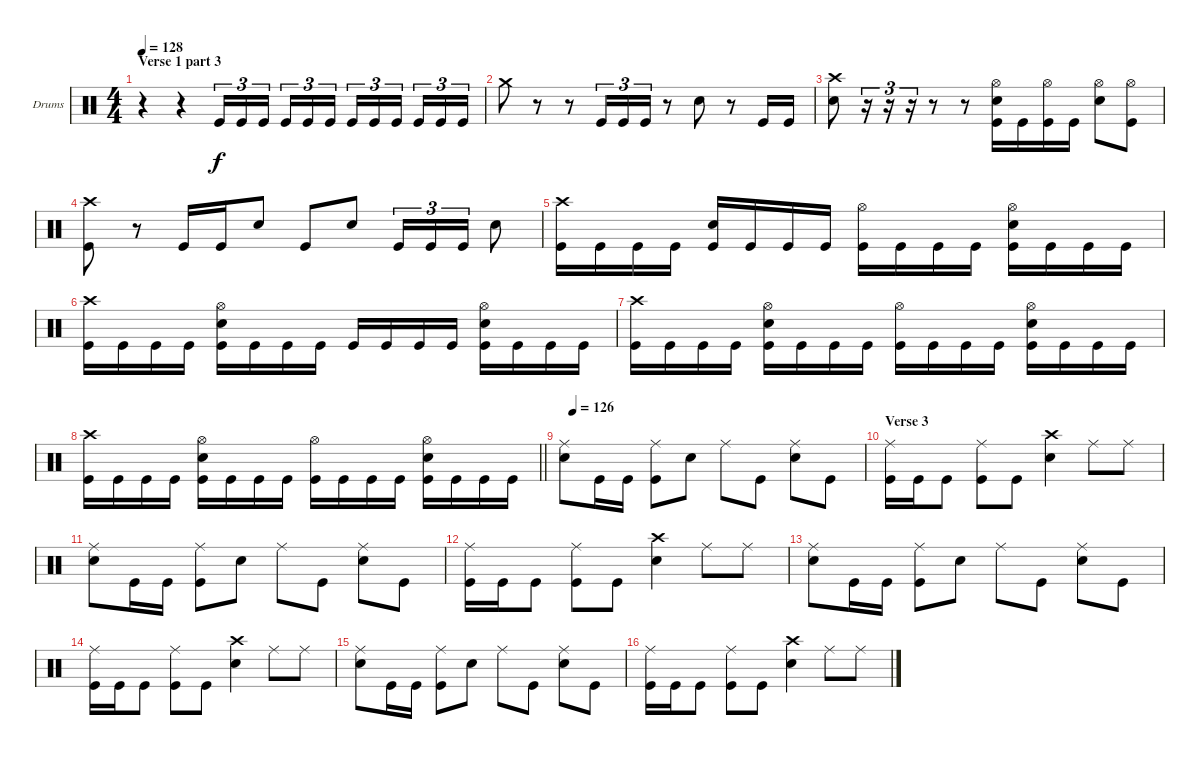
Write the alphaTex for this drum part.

\bracketExtendMode groupsimilarinstruments
\firstSystemTrackNameOrientation horizontal
\otherSystemsTrackNameOrientation horizontal
\track ("Drumkit" "Drums") {instrument percussion}
\staff {score}
\articulation defaults
\ts (4 4)
\section ("" "Verse 1 part 3")
\tempo 128
\clef neutral
\ks c
r.4{dy f} r.4 "Kick (hit)".16{tu (3 2)} "Kick (hit)".16{tu (3 2)} "Kick (hit)".16{tu (3 2)} "Kick (hit)".16{tu (3 2)} "Kick (hit)".16{tu (3 2)} "Kick (hit)".16{tu (3 2)} "Kick (hit)".16{tu (3 2)} "Kick (hit)".16{tu (3 2)} "Kick (hit)".16{tu (3 2)} "Kick (hit)".16{tu (3 2)} "Kick (hit)".16{tu (3 2)} "Kick (hit)".16{tu (3 2)} |
"Crash medium (hit)".8 r.8 r.8 "Kick (hit)".16{tu (3 2)} "Kick (hit)".16{tu (3 2)} "Kick (hit)".16{tu (3 2)} r.8 "Snare (hit) 2".8 r.8 "Kick (hit)".16 "Kick (hit)".16 |
("Crash high (hit)" "Snare (hit) 2").8 r.16{tu (3 2)} r.16{tu (3 2)} r.16{tu (3 2)} r.8 r.8 ("Hi-Hat (open)" "Snare (hit) 2" "Kick (hit)").16 "Kick (hit)".16 ("Hi-Hat (open)" "Kick (hit)").16 "Kick (hit)".16 ("Hi-Hat (open)" "Snare (hit) 2").8 ("Hi-Hat (open)" "Kick (hit)").8 |
("Crash high (hit)" "Kick (hit)").8 r.8 "Kick (hit)".16 "Kick (hit)".16 "Snare (hit) 2".8 "Kick (hit)".8 "Snare (hit) 2".8 "Kick (hit)".16{tu (3 2)} "Kick (hit)".16{tu (3 2)} "Kick (hit)".16{tu (3 2)} "Snare (hit) 2".8 |
("Crash high (hit)" "Kick (hit)").16 "Kick (hit)".16 "Kick (hit)".16 "Kick (hit)".16 ("Snare (hit) 2" "Kick (hit)").16 "Kick (hit)".16 "Kick (hit)".16 "Kick (hit)".16 ("Hi-Hat (open)" "Kick (hit)").16 "Kick (hit)".16 "Kick (hit)".16 "Kick (hit)".16 ("Hi-Hat (open)" "Snare (hit) 2" "Kick (hit)").16 "Kick (hit)".16 "Kick (hit)".16 "Kick (hit)".16 |
("Crash high (hit)" "Kick (hit)").16 "Kick (hit)".16 "Kick (hit)".16 "Kick (hit)".16 ("Hi-Hat (open)" "Snare (hit) 2" "Kick (hit)").16 "Kick (hit)".16 "Kick (hit)".16 "Kick (hit)".16 "Kick (hit)".16 "Kick (hit)".16 "Kick (hit)".16 "Kick (hit)".16 ("Hi-Hat (open)" "Snare (hit) 2" "Kick (hit)").16 "Kick (hit)".16 "Kick (hit)".16 "Kick (hit)".16 |
("Crash high (hit)" "Kick (hit)").16 "Kick (hit)".16 "Kick (hit)".16 "Kick (hit)".16 ("Hi-Hat (open)" "Snare (hit) 2" "Kick (hit)").16 "Kick (hit)".16 "Kick (hit)".16 "Kick (hit)".16 ("Hi-Hat (open)" "Kick (hit)").16 "Kick (hit)".16 "Kick (hit)".16 "Kick (hit)".16 ("Hi-Hat (open)" "Snare (hit) 2" "Kick (hit)").16 "Kick (hit)".16 "Kick (hit)".16 "Kick (hit)".16 |
\barLineRight lightlight
("Crash high (hit)" "Kick (hit)").16 "Kick (hit)".16 "Kick (hit)".16 "Kick (hit)".16 ("Hi-Hat (open)" "Snare (hit) 2" "Kick (hit)").16 "Kick (hit)".16 "Kick (hit)".16 "Kick (hit)".16 ("Hi-Hat (open)" "Kick (hit)").16 "Kick (hit)".16 "Kick (hit)".16 "Kick (hit)".16 ("Hi-Hat (open)" "Snare (hit) 2" "Kick (hit)").16 "Kick (hit)".16 "Kick (hit)".16 "Kick (hit)".16 |
\tempo (126 0.03125)
("Ride (middle)" "Snare (hit) 2").8 "Kick (hit)".16 "Kick (hit)".16 ("Ride (middle)" "Kick (hit)").8 "Snare (hit) 2".8 "Ride (middle)".8 "Kick (hit)".8 ("Ride (middle)" "Snare (hit) 2").8 "Kick (hit)".8 |
\section ("" "Verse 3")
("Ride (middle)" "Kick (hit)").16 "Kick (hit)".16 "Kick (hit)".8 ("Ride (middle)" "Kick (hit)").8 "Kick (hit)".8 ("Crash high (hit)" "Snare (hit) 2").4 "Ride (middle)".8 "Ride (middle)".8 |
("Ride (middle)" "Snare (hit) 2").8 "Kick (hit)".16 "Kick (hit)".16 ("Ride (middle)" "Kick (hit)").8 "Snare (hit) 2".8 "Ride (middle)".8 "Kick (hit)".8 ("Ride (middle)" "Snare (hit) 2").8 "Kick (hit)".8 |
("Ride (middle)" "Kick (hit)").16 "Kick (hit)".16 "Kick (hit)".8 ("Ride (middle)" "Kick (hit)").8 "Kick (hit)".8 ("Crash high (hit)" "Snare (hit) 2").4 "Ride (middle)".8 "Ride (middle)".8 |
("Ride (middle)" "Snare (hit) 2").8 "Kick (hit)".16 "Kick (hit)".16 ("Ride (middle)" "Kick (hit)").8 "Snare (hit) 2".8 "Ride (middle)".8 "Kick (hit)".8 ("Ride (middle)" "Snare (hit) 2").8 "Kick (hit)".8 |
("Ride (middle)" "Kick (hit)").16 "Kick (hit)".16 "Kick (hit)".8 ("Ride (middle)" "Kick (hit)").8 "Kick (hit)".8 ("Crash high (hit)" "Snare (hit) 2").4 "Ride (middle)".8 "Ride (middle)".8 |
("Ride (middle)" "Snare (hit) 2").8 "Kick (hit)".16 "Kick (hit)".16 ("Ride (middle)" "Kick (hit)").8 "Snare (hit) 2".8 "Ride (middle)".8 "Kick (hit)".8 ("Ride (middle)" "Snare (hit) 2").8 "Kick (hit)".8 |
("Ride (middle)" "Kick (hit)").16 "Kick (hit)".16 "Kick (hit)".8 ("Ride (middle)" "Kick (hit)").8 "Kick (hit)".8 ("Crash high (hit)" "Snare (hit) 2").4 "Ride (middle)".8 "Ride (middle)".8
